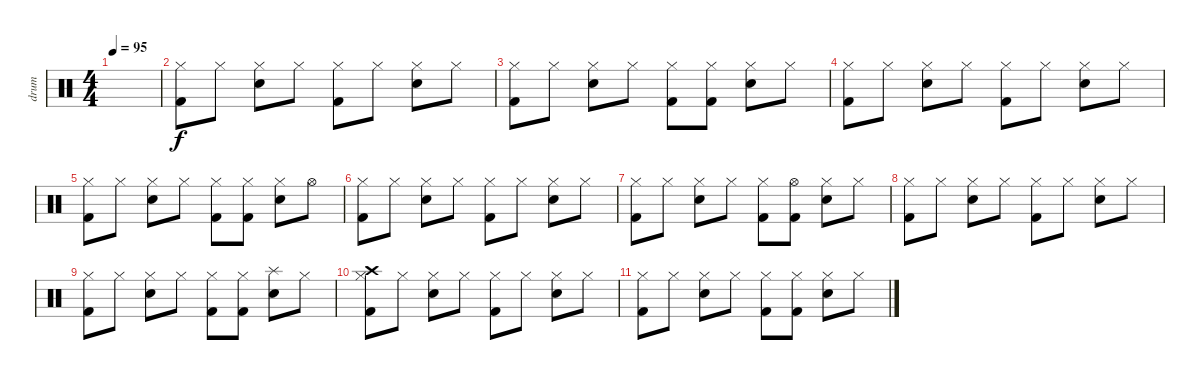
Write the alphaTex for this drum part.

\track ("drum" "drum") {instrument percussion}
\staff {score}
\articulation defaults
\ts (4 4)
\tempo 95
\clef neutral
\ks c
|
("Hi-Hat (closed)" "Kick (hit) 2").8 "Hi-Hat (closed)".8 ("Hi-Hat (closed)" "Electric Snare (hit)").8 "Hi-Hat (closed)".8 ("Hi-Hat (closed)" "Kick (hit) 2").8 "Hi-Hat (closed)".8 ("Hi-Hat (closed)" "Electric Snare (hit)").8 "Hi-Hat (closed)".8 |
("Hi-Hat (closed)" "Kick (hit) 2").8 "Hi-Hat (closed)".8 ("Hi-Hat (closed)" "Electric Snare (hit)").8 "Hi-Hat (closed)".8 ("Hi-Hat (closed)" "Kick (hit) 2").8 ("Hi-Hat (closed)" "Kick (hit) 2").8 ("Hi-Hat (closed)" "Electric Snare (hit)").8 "Hi-Hat (closed)".8 |
("Hi-Hat (closed)" "Kick (hit) 2").8 "Hi-Hat (closed)".8 ("Hi-Hat (closed)" "Electric Snare (hit)").8 "Hi-Hat (closed)".8 ("Hi-Hat (closed)" "Kick (hit) 2").8 "Hi-Hat (closed)".8 ("Hi-Hat (closed)" "Electric Snare (hit)").8 "Hi-Hat (closed)".8 |
("Hi-Hat (closed)" "Kick (hit) 2").8 "Hi-Hat (closed)".8 ("Hi-Hat (closed)" "Electric Snare (hit)").8 "Hi-Hat (closed)".8 ("Hi-Hat (closed)" "Kick (hit) 2").8 ("Hi-Hat (closed)" "Kick (hit) 2").8 ("Hi-Hat (closed)" "Electric Snare (hit)").8 "Hi-Hat (open)".8 |
("Hi-Hat (closed)" "Kick (hit) 2").8{volume 11} "Hi-Hat (closed)".8 ("Hi-Hat (closed)" "Electric Snare (hit)").8 "Hi-Hat (closed)".8 ("Hi-Hat (closed)" "Kick (hit) 2").8 "Hi-Hat (closed)".8 ("Hi-Hat (closed)" "Electric Snare (hit)").8 "Hi-Hat (closed)".8 |
("Hi-Hat (closed)" "Kick (hit) 2").8{volume 10} "Hi-Hat (closed)".8 ("Hi-Hat (closed)" "Electric Snare (hit)").8 "Hi-Hat (closed)".8 ("Hi-Hat (closed)" "Kick (hit) 2").8 ("Hi-Hat (open)" "Kick (hit) 2").8 ("Hi-Hat (closed)" "Electric Snare (hit)").8 "Hi-Hat (closed)".8 |
("Hi-Hat (closed)" "Kick (hit) 2").8{volume 9} "Hi-Hat (closed)".8 ("Hi-Hat (closed)" "Electric Snare (hit)").8 "Hi-Hat (closed)".8 ("Hi-Hat (closed)" "Kick (hit) 2").8 "Hi-Hat (closed)".8 ("Hi-Hat (closed)" "Electric Snare (hit)").8 "Hi-Hat (closed)".8 |
("Hi-Hat (closed)" "Kick (hit) 2").8{volume 7} "Hi-Hat (closed)".8 ("Hi-Hat (closed)" "Electric Snare (hit)").8 "Hi-Hat (closed)".8 ("Hi-Hat (closed)" "Kick (hit) 2").8 ("Hi-Hat (closed)" "Kick (hit) 2").8 ("Splash (hit)" "Electric Snare (hit)").8 "Hi-Hat (closed)".8 |
("Crash high (hit)" "Hi-Hat (closed)" "Kick (hit) 2").8{volume 5} "Hi-Hat (closed)".8 ("Hi-Hat (closed)" "Electric Snare (hit)").8 "Hi-Hat (closed)".8 ("Hi-Hat (closed)" "Kick (hit) 2").8 "Hi-Hat (closed)".8 ("Hi-Hat (closed)" "Electric Snare (hit)").8 "Hi-Hat (closed)".8 |
("Hi-Hat (closed)" "Kick (hit) 2").8{volume 0} "Hi-Hat (closed)".8 ("Hi-Hat (closed)" "Electric Snare (hit)").8 "Hi-Hat (closed)".8 ("Hi-Hat (closed)" "Kick (hit) 2").8 ("Hi-Hat (closed)" "Kick (hit) 2").8 ("Hi-Hat (closed)" "Electric Snare (hit)").8 "Hi-Hat (closed)".8
